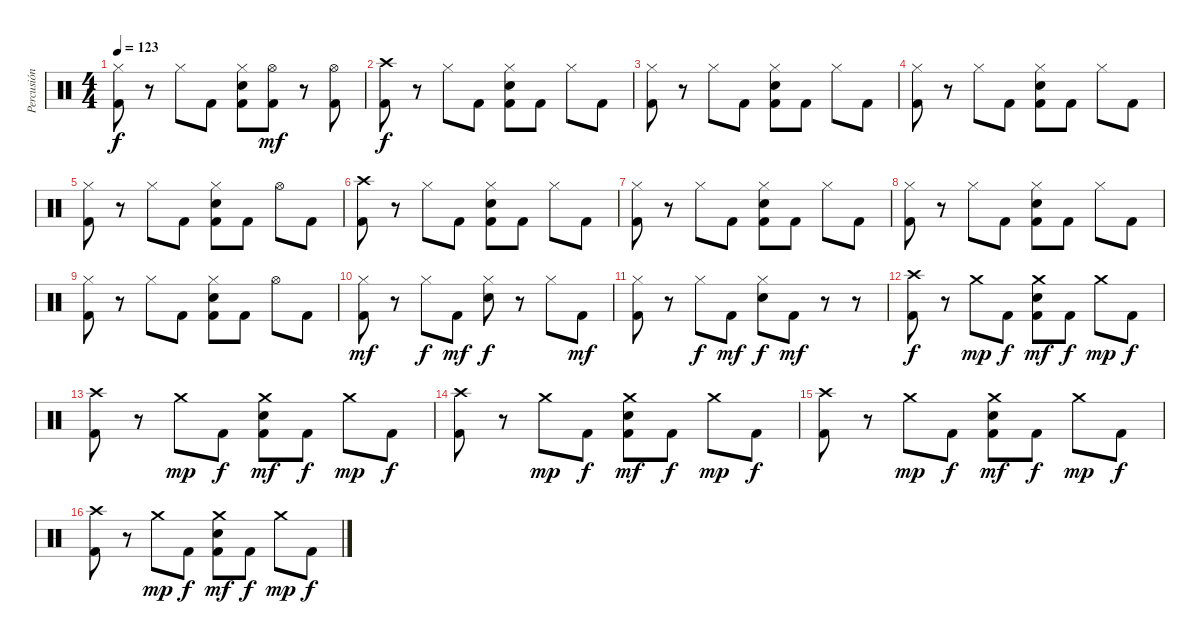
\track ("Percusión" "Percusión") {instrument percussion}
\staff {score}
\articulation defaults
\ts (4 4)
\tempo 123
\clef neutral
\ks c
("Hi-Hat (closed)" "Kick (hit) 2").8{dy f} r.8 "Hi-Hat (closed)".8 "Kick (hit) 2".8 ("Hi-Hat (closed)" "Snare (hit) 2" "Kick (hit) 2").8 ("Hi-Hat (open)" "Kick (hit) 2").8{dy mf} r.8 ("Hi-Hat (open)" "Kick (hit) 2").8 |
("Crash high (hit)" "Kick (hit) 2").8{dy f} r.8 "Hi-Hat (closed)".8 "Kick (hit) 2".8 ("Hi-Hat (closed)" "Snare (hit) 2" "Kick (hit) 2").8 "Kick (hit) 2".8 "Hi-Hat (closed)".8 "Kick (hit) 2".8 |
("Hi-Hat (closed)" "Kick (hit) 2").8 r.8 "Hi-Hat (closed)".8 "Kick (hit) 2".8 ("Hi-Hat (closed)" "Snare (hit) 2" "Kick (hit) 2").8 "Kick (hit) 2".8 "Hi-Hat (closed)".8 "Kick (hit) 2".8 |
("Hi-Hat (closed)" "Kick (hit) 2").8 r.8 "Hi-Hat (closed)".8 "Kick (hit) 2".8 ("Hi-Hat (closed)" "Snare (hit) 2" "Kick (hit) 2").8 "Kick (hit) 2".8 "Hi-Hat (closed)".8 "Kick (hit) 2".8 |
("Hi-Hat (closed)" "Kick (hit) 2").8 r.8 "Hi-Hat (closed)".8 "Kick (hit) 2".8 ("Hi-Hat (closed)" "Snare (hit) 2" "Kick (hit) 2").8 "Kick (hit) 2".8 "Hi-Hat (open)".8 "Kick (hit) 2".8 |
("Crash high (hit)" "Kick (hit) 2").8 r.8 "Hi-Hat (closed)".8 "Kick (hit) 2".8 ("Hi-Hat (closed)" "Snare (hit) 2" "Kick (hit) 2").8 "Kick (hit) 2".8 "Hi-Hat (closed)".8 "Kick (hit) 2".8 |
("Hi-Hat (closed)" "Kick (hit) 2").8 r.8 "Hi-Hat (closed)".8 "Kick (hit) 2".8 ("Hi-Hat (closed)" "Snare (hit) 2" "Kick (hit) 2").8 "Kick (hit) 2".8 "Hi-Hat (closed)".8 "Kick (hit) 2".8 |
("Hi-Hat (closed)" "Kick (hit) 2").8 r.8 "Hi-Hat (closed)".8 "Kick (hit) 2".8 ("Hi-Hat (closed)" "Snare (hit) 2" "Kick (hit) 2").8 "Kick (hit) 2".8 "Hi-Hat (closed)".8 "Kick (hit) 2".8 |
("Hi-Hat (closed)" "Kick (hit) 2").8 r.8 "Hi-Hat (closed)".8 "Kick (hit) 2".8 ("Hi-Hat (closed)" "Snare (hit) 2" "Kick (hit) 2").8 "Kick (hit) 2".8 "Hi-Hat (open)".8 "Kick (hit) 2".8 |
("Hi-Hat (closed)" "Kick (hit) 2").8{dy mf} r.8 "Hi-Hat (closed)".8{dy f} "Kick (hit) 2".8{dy mf} ("Hi-Hat (closed)" "Snare (hit) 2").8{dy f} r.8 "Hi-Hat (closed)".8 "Kick (hit) 2".8{dy mf} |
("Hi-Hat (closed)" "Kick (hit) 2").8 r.8 "Hi-Hat (closed)".8{dy f} "Kick (hit) 2".8{dy mf} ("Hi-Hat (closed)" "Snare (hit) 2").8{dy f} "Kick (hit) 2".8{dy mf} r.8 r.8 |
("Crash high (hit)" "Kick (hit) 2").8{dy f} r.8 "Crash medium (hit)".8{dy mp} "Kick (hit) 2".8{dy f} ("Crash medium (hit)" "Snare (hit) 2" "Kick (hit) 2").8{dy mf} "Kick (hit) 2".8{dy f} "Crash medium (hit)".8{dy mp} "Kick (hit) 2".8{dy f} |
("Crash high (hit)" "Kick (hit) 2").8 r.8 "Crash medium (hit)".8{dy mp} "Kick (hit) 2".8{dy f} ("Crash medium (hit)" "Snare (hit) 2" "Kick (hit) 2").8{dy mf} "Kick (hit) 2".8{dy f} "Crash medium (hit)".8{dy mp} "Kick (hit) 2".8{dy f} |
("Crash high (hit)" "Kick (hit) 2").8 r.8 "Crash medium (hit)".8{dy mp} "Kick (hit) 2".8{dy f} ("Crash medium (hit)" "Snare (hit) 2" "Kick (hit) 2").8{dy mf} "Kick (hit) 2".8{dy f} "Crash medium (hit)".8{dy mp} "Kick (hit) 2".8{dy f} |
("Crash high (hit)" "Kick (hit) 2").8 r.8 "Crash medium (hit)".8{dy mp} "Kick (hit) 2".8{dy f} ("Crash medium (hit)" "Snare (hit) 2" "Kick (hit) 2").8{dy mf} "Kick (hit) 2".8{dy f} "Crash medium (hit)".8{dy mp} "Kick (hit) 2".8{dy f} |
("Crash high (hit)" "Kick (hit) 2").8 r.8 "Crash medium (hit)".8{dy mp} "Kick (hit) 2".8{dy f} ("Crash medium (hit)" "Snare (hit) 2" "Kick (hit) 2").8{dy mf} "Kick (hit) 2".8{dy f} "Crash medium (hit)".8{dy mp} "Kick (hit) 2".8{dy f}
